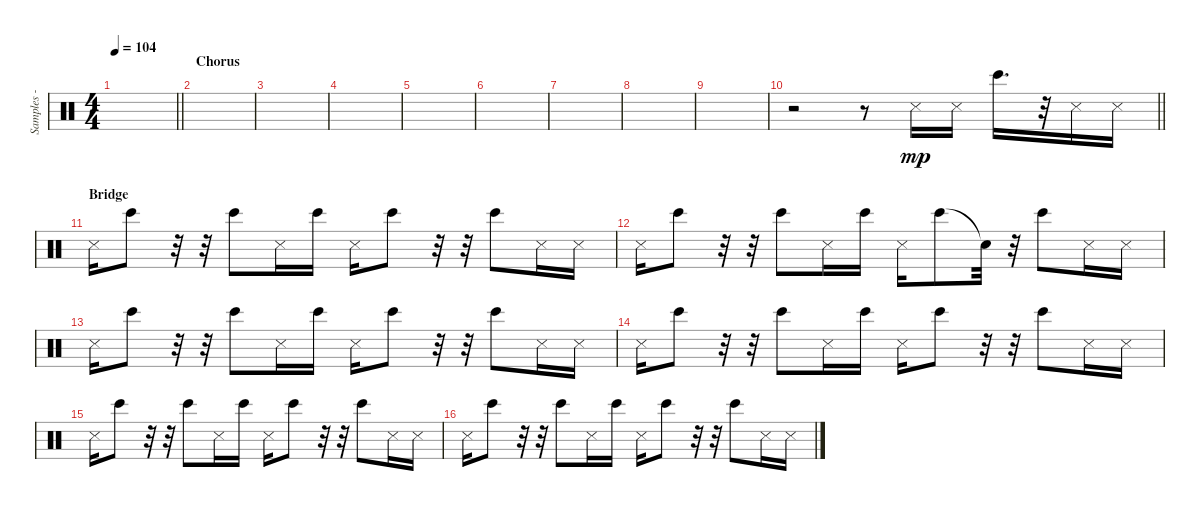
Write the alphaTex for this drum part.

\track ("Samples - Joe Hahn" "Samples - ") {instrument percussion}
\staff {score}
\articulation defaults
\ts (4 4)
\tempo 104
\clef neutral
\barLineRight lightlight
\ks c
|
\section ("" "Chorus")
|
|
|
|
|
|
|
|
\barLineRight lightlight
r.2 r.8 "Metronome (hit)".16{dy mp} "Metronome (hit)".16 "Bongo High (hit)".16{d} r.32 "Metronome (hit)".16 "Metronome (hit)".16 |
\section ("" "Bridge")
"Metronome (hit)".16 "Bongo High (hit)".8 r.32 r.32 "Bongo High (hit)".8 "Metronome (hit)".16 "Bongo High (hit)".16 "Metronome (hit)".16 "Bongo High (hit)".8 r.32 r.32 "Bongo High (hit)".8 "Metronome (hit)".16 "Metronome (hit)".16 |
"Metronome (hit)".16 "Bongo High (hit)".8 r.32 r.32 "Bongo High (hit)".8 "Metronome (hit)".16 "Bongo High (hit)".16 "Metronome (hit)".16 "Bongo High (hit)".8 "Snare (hit)"{t}.32 r.32 "Bongo High (hit)".8 "Metronome (hit)".16 "Metronome (hit)".16 |
"Metronome (hit)".16 "Bongo High (hit)".8 r.32 r.32 "Bongo High (hit)".8 "Metronome (hit)".16 "Bongo High (hit)".16 "Metronome (hit)".16 "Bongo High (hit)".8 r.32 r.32 "Bongo High (hit)".8 "Metronome (hit)".16 "Metronome (hit)".16 |
"Metronome (hit)".16 "Bongo High (hit)".8 r.32 r.32 "Bongo High (hit)".8 "Metronome (hit)".16 "Bongo High (hit)".16 "Metronome (hit)".16 "Bongo High (hit)".8 r.32 r.32 "Bongo High (hit)".8 "Metronome (hit)".16 "Metronome (hit)".16 |
"Metronome (hit)".16 "Bongo High (hit)".8 r.32 r.32 "Bongo High (hit)".8 "Metronome (hit)".16 "Bongo High (hit)".16 "Metronome (hit)".16 "Bongo High (hit)".8 r.32 r.32 "Bongo High (hit)".8 "Metronome (hit)".16 "Metronome (hit)".16 |
"Metronome (hit)".16 "Bongo High (hit)".8 r.32 r.32 "Bongo High (hit)".8 "Metronome (hit)".16 "Bongo High (hit)".16 "Metronome (hit)".16 "Bongo High (hit)".8 r.32 r.32 "Bongo High (hit)".8 "Metronome (hit)".16 "Metronome (hit)".16
